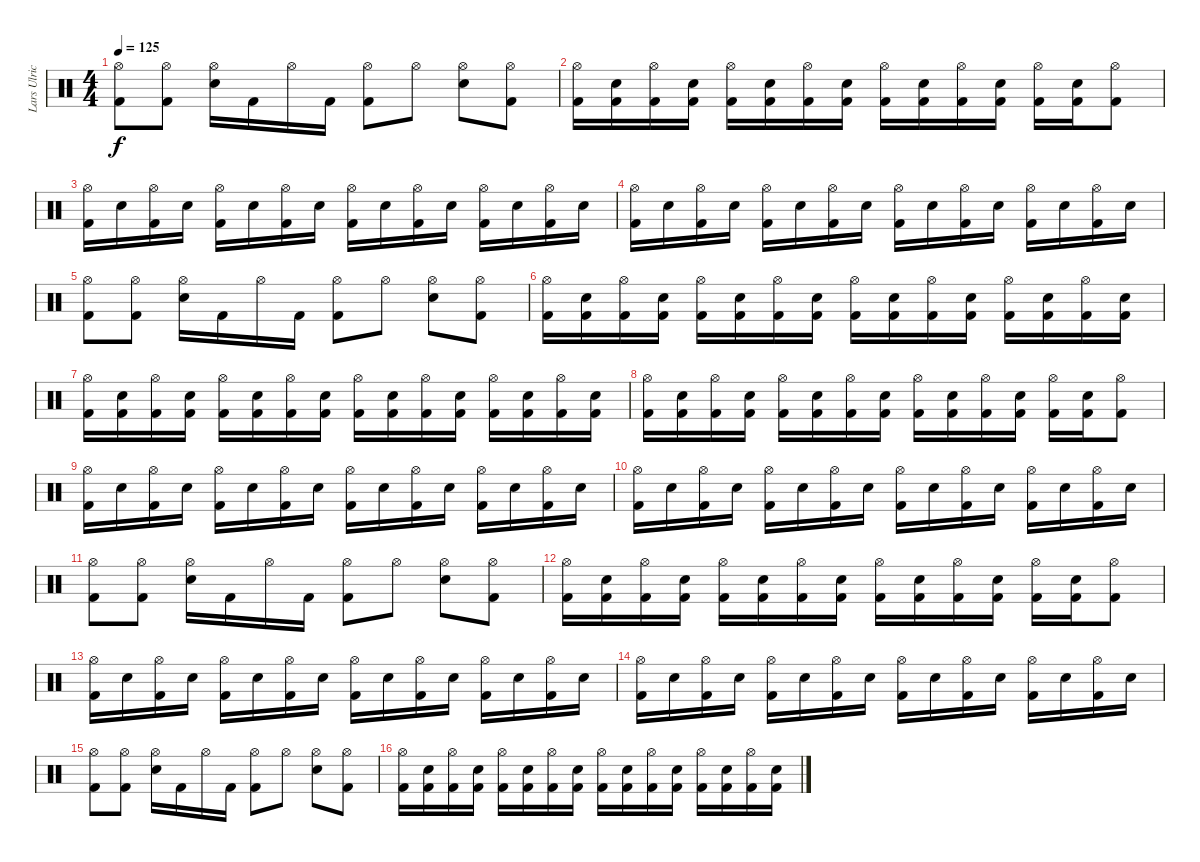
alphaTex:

\track ("Lars Ulrich" "Lars Ulric") {instrument percussion}
\staff {score}
\articulation defaults
\ts (4 4)
\tempo 125
\clef neutral
\ks c
("Hi-Hat (open)" "Kick (hit) 2").8{dy f} ("Hi-Hat (open)" "Kick (hit) 2").8 ("Hi-Hat (open)" "Electric Snare (hit)").16 "Kick (hit) 2".16 "Hi-Hat (open)".16 "Kick (hit) 2".16 ("Hi-Hat (open)" "Kick (hit) 2").8 "Hi-Hat (open)".8 ("Hi-Hat (open)" "Electric Snare (hit)").8 ("Hi-Hat (open)" "Kick (hit) 2").8 |
("Hi-Hat (open)" "Kick (hit) 2").16 ("Electric Snare (hit)" "Kick (hit) 2").16 ("Hi-Hat (open)" "Kick (hit) 2").16 ("Electric Snare (hit)" "Kick (hit) 2").16 ("Hi-Hat (open)" "Kick (hit) 2").16 ("Electric Snare (hit)" "Kick (hit) 2").16 ("Hi-Hat (open)" "Kick (hit) 2").16 ("Electric Snare (hit)" "Kick (hit) 2").16 ("Hi-Hat (open)" "Kick (hit) 2").16 ("Electric Snare (hit)" "Kick (hit) 2").16 ("Hi-Hat (open)" "Kick (hit) 2").16 ("Electric Snare (hit)" "Kick (hit) 2").16 ("Hi-Hat (open)" "Kick (hit) 2").16 ("Electric Snare (hit)" "Kick (hit) 2").16 ("Hi-Hat (open)" "Kick (hit) 2").8 |
("Hi-Hat (open)" "Kick (hit) 2").16 "Electric Snare (hit)".16 ("Hi-Hat (open)" "Kick (hit) 2").16 "Electric Snare (hit)".16 ("Hi-Hat (open)" "Kick (hit) 2").16 "Electric Snare (hit)".16 ("Hi-Hat (open)" "Kick (hit) 2").16 "Electric Snare (hit)".16 ("Hi-Hat (open)" "Kick (hit) 2").16 "Electric Snare (hit)".16 ("Hi-Hat (open)" "Kick (hit) 2").16 "Electric Snare (hit)".16 ("Hi-Hat (open)" "Kick (hit) 2").16 "Electric Snare (hit)".16 ("Hi-Hat (open)" "Kick (hit) 2").16 "Electric Snare (hit)".16 |
("Hi-Hat (open)" "Kick (hit) 2").16 "Electric Snare (hit)".16 ("Hi-Hat (open)" "Kick (hit) 2").16 "Electric Snare (hit)".16 ("Hi-Hat (open)" "Kick (hit) 2").16 "Electric Snare (hit)".16 ("Hi-Hat (open)" "Kick (hit) 2").16 "Electric Snare (hit)".16 ("Hi-Hat (open)" "Kick (hit) 2").16 "Electric Snare (hit)".16 ("Hi-Hat (open)" "Kick (hit) 2").16 "Electric Snare (hit)".16 ("Hi-Hat (open)" "Kick (hit) 2").16 "Electric Snare (hit)".16 ("Hi-Hat (open)" "Kick (hit) 2").16 "Electric Snare (hit)".16 |
("Hi-Hat (open)" "Kick (hit) 2").8 ("Hi-Hat (open)" "Kick (hit) 2").8 ("Hi-Hat (open)" "Electric Snare (hit)").16 "Kick (hit) 2".16 "Hi-Hat (open)".16 "Kick (hit) 2".16 ("Hi-Hat (open)" "Kick (hit) 2").8 "Hi-Hat (open)".8 ("Hi-Hat (open)" "Electric Snare (hit)").8 ("Hi-Hat (open)" "Kick (hit) 2").8 |
("Hi-Hat (open)" "Kick (hit) 2").16 ("Electric Snare (hit)" "Kick (hit) 2").16 ("Hi-Hat (open)" "Kick (hit) 2").16 ("Electric Snare (hit)" "Kick (hit) 2").16 ("Hi-Hat (open)" "Kick (hit) 2").16 ("Electric Snare (hit)" "Kick (hit) 2").16 ("Hi-Hat (open)" "Kick (hit) 2").16 ("Electric Snare (hit)" "Kick (hit) 2").16 ("Hi-Hat (open)" "Kick (hit) 2").16 ("Electric Snare (hit)" "Kick (hit) 2").16 ("Hi-Hat (open)" "Kick (hit) 2").16 ("Electric Snare (hit)" "Kick (hit) 2").16 ("Hi-Hat (open)" "Kick (hit) 2").16 ("Electric Snare (hit)" "Kick (hit) 2").16 ("Hi-Hat (open)" "Kick (hit) 2").16 ("Electric Snare (hit)" "Kick (hit) 2").16 |
("Hi-Hat (open)" "Kick (hit) 2").16 ("Electric Snare (hit)" "Kick (hit) 2").16 ("Hi-Hat (open)" "Kick (hit) 2").16 ("Electric Snare (hit)" "Kick (hit) 2").16 ("Hi-Hat (open)" "Kick (hit) 2").16 ("Electric Snare (hit)" "Kick (hit) 2").16 ("Hi-Hat (open)" "Kick (hit) 2").16 ("Electric Snare (hit)" "Kick (hit) 2").16 ("Hi-Hat (open)" "Kick (hit) 2").16 ("Electric Snare (hit)" "Kick (hit) 2").16 ("Hi-Hat (open)" "Kick (hit) 2").16 ("Electric Snare (hit)" "Kick (hit) 2").16 ("Hi-Hat (open)" "Kick (hit) 2").16 ("Electric Snare (hit)" "Kick (hit) 2").16 ("Hi-Hat (open)" "Kick (hit) 2").16 ("Electric Snare (hit)" "Kick (hit) 2").16 |
("Hi-Hat (open)" "Kick (hit) 2").16 ("Electric Snare (hit)" "Kick (hit) 2").16 ("Hi-Hat (open)" "Kick (hit) 2").16 ("Electric Snare (hit)" "Kick (hit) 2").16 ("Hi-Hat (open)" "Kick (hit) 2").16 ("Electric Snare (hit)" "Kick (hit) 2").16 ("Hi-Hat (open)" "Kick (hit) 2").16 ("Electric Snare (hit)" "Kick (hit) 2").16 ("Hi-Hat (open)" "Kick (hit) 2").16 ("Electric Snare (hit)" "Kick (hit) 2").16 ("Hi-Hat (open)" "Kick (hit) 2").16 ("Electric Snare (hit)" "Kick (hit) 2").16 ("Hi-Hat (open)" "Kick (hit) 2").16 ("Electric Snare (hit)" "Kick (hit) 2").16 ("Hi-Hat (open)" "Kick (hit) 2").8 |
("Hi-Hat (open)" "Kick (hit) 2").16 "Electric Snare (hit)".16 ("Hi-Hat (open)" "Kick (hit) 2").16 "Electric Snare (hit)".16 ("Hi-Hat (open)" "Kick (hit) 2").16 "Electric Snare (hit)".16 ("Hi-Hat (open)" "Kick (hit) 2").16 "Electric Snare (hit)".16 ("Hi-Hat (open)" "Kick (hit) 2").16 "Electric Snare (hit)".16 ("Hi-Hat (open)" "Kick (hit) 2").16 "Electric Snare (hit)".16 ("Hi-Hat (open)" "Kick (hit) 2").16 "Electric Snare (hit)".16 ("Hi-Hat (open)" "Kick (hit) 2").16 "Electric Snare (hit)".16 |
("Hi-Hat (open)" "Kick (hit) 2").16 "Electric Snare (hit)".16 ("Hi-Hat (open)" "Kick (hit) 2").16 "Electric Snare (hit)".16 ("Hi-Hat (open)" "Kick (hit) 2").16 "Electric Snare (hit)".16 ("Hi-Hat (open)" "Kick (hit) 2").16 "Electric Snare (hit)".16 ("Hi-Hat (open)" "Kick (hit) 2").16 "Electric Snare (hit)".16 ("Hi-Hat (open)" "Kick (hit) 2").16 "Electric Snare (hit)".16 ("Hi-Hat (open)" "Kick (hit) 2").16 "Electric Snare (hit)".16 ("Hi-Hat (open)" "Kick (hit) 2").16 "Electric Snare (hit)".16 |
("Hi-Hat (open)" "Kick (hit) 2").8 ("Hi-Hat (open)" "Kick (hit) 2").8 ("Hi-Hat (open)" "Electric Snare (hit)").16 "Kick (hit) 2".16 "Hi-Hat (open)".16 "Kick (hit) 2".16 ("Hi-Hat (open)" "Kick (hit) 2").8 "Hi-Hat (open)".8 ("Hi-Hat (open)" "Electric Snare (hit)").8 ("Hi-Hat (open)" "Kick (hit) 2").8 |
("Hi-Hat (open)" "Kick (hit) 2").16 ("Electric Snare (hit)" "Kick (hit) 2").16 ("Hi-Hat (open)" "Kick (hit) 2").16 ("Electric Snare (hit)" "Kick (hit) 2").16 ("Hi-Hat (open)" "Kick (hit) 2").16 ("Electric Snare (hit)" "Kick (hit) 2").16 ("Hi-Hat (open)" "Kick (hit) 2").16 ("Electric Snare (hit)" "Kick (hit) 2").16 ("Hi-Hat (open)" "Kick (hit) 2").16 ("Electric Snare (hit)" "Kick (hit) 2").16 ("Hi-Hat (open)" "Kick (hit) 2").16 ("Electric Snare (hit)" "Kick (hit) 2").16 ("Hi-Hat (open)" "Kick (hit) 2").16 ("Electric Snare (hit)" "Kick (hit) 2").16 ("Hi-Hat (open)" "Kick (hit) 2").8 |
("Hi-Hat (open)" "Kick (hit) 2").16 "Electric Snare (hit)".16 ("Hi-Hat (open)" "Kick (hit) 2").16 "Electric Snare (hit)".16 ("Hi-Hat (open)" "Kick (hit) 2").16 "Electric Snare (hit)".16 ("Hi-Hat (open)" "Kick (hit) 2").16 "Electric Snare (hit)".16 ("Hi-Hat (open)" "Kick (hit) 2").16 "Electric Snare (hit)".16 ("Hi-Hat (open)" "Kick (hit) 2").16 "Electric Snare (hit)".16 ("Hi-Hat (open)" "Kick (hit) 2").16 "Electric Snare (hit)".16 ("Hi-Hat (open)" "Kick (hit) 2").16 "Electric Snare (hit)".16 |
("Hi-Hat (open)" "Kick (hit) 2").16 "Electric Snare (hit)".16 ("Hi-Hat (open)" "Kick (hit) 2").16 "Electric Snare (hit)".16 ("Hi-Hat (open)" "Kick (hit) 2").16 "Electric Snare (hit)".16 ("Hi-Hat (open)" "Kick (hit) 2").16 "Electric Snare (hit)".16 ("Hi-Hat (open)" "Kick (hit) 2").16 "Electric Snare (hit)".16 ("Hi-Hat (open)" "Kick (hit) 2").16 "Electric Snare (hit)".16 ("Hi-Hat (open)" "Kick (hit) 2").16 "Electric Snare (hit)".16 ("Hi-Hat (open)" "Kick (hit) 2").16 "Electric Snare (hit)".16 |
("Hi-Hat (open)" "Kick (hit) 2").8 ("Hi-Hat (open)" "Kick (hit) 2").8 ("Hi-Hat (open)" "Electric Snare (hit)").16 "Kick (hit) 2".16 "Hi-Hat (open)".16 "Kick (hit) 2".16 ("Hi-Hat (open)" "Kick (hit) 2").8 "Hi-Hat (open)".8 ("Hi-Hat (open)" "Electric Snare (hit)").8 ("Hi-Hat (open)" "Kick (hit) 2").8 |
("Hi-Hat (open)" "Kick (hit) 2").16 ("Electric Snare (hit)" "Kick (hit) 2").16 ("Hi-Hat (open)" "Kick (hit) 2").16 ("Electric Snare (hit)" "Kick (hit) 2").16 ("Hi-Hat (open)" "Kick (hit) 2").16 ("Electric Snare (hit)" "Kick (hit) 2").16 ("Hi-Hat (open)" "Kick (hit) 2").16 ("Electric Snare (hit)" "Kick (hit) 2").16 ("Hi-Hat (open)" "Kick (hit) 2").16 ("Electric Snare (hit)" "Kick (hit) 2").16 ("Hi-Hat (open)" "Kick (hit) 2").16 ("Electric Snare (hit)" "Kick (hit) 2").16 ("Hi-Hat (open)" "Kick (hit) 2").16 ("Electric Snare (hit)" "Kick (hit) 2").16 ("Hi-Hat (open)" "Kick (hit) 2").16 ("Electric Snare (hit)" "Kick (hit) 2").16
